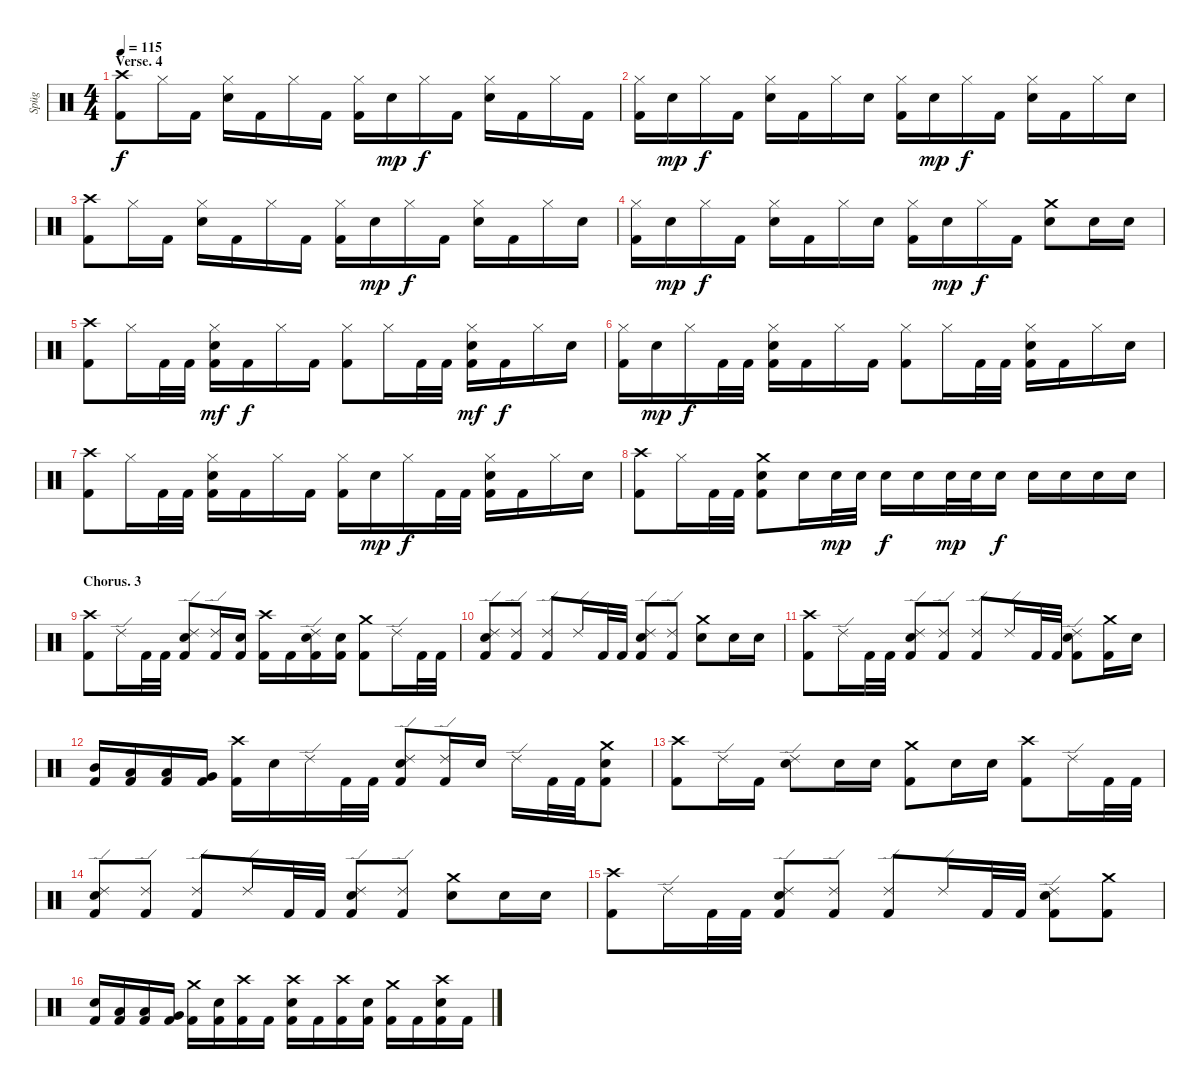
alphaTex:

\track ("Spüg" "Spüg") {instrument percussion}
\staff {score}
\articulation defaults
\ts (4 4)
\section ("" "Verse. 4")
\tempo 115
\clef neutral
\ks c
("Crash high (hit)" "Kick (hit) 2").8{dy f} "Hi-Hat (closed)".16 "Kick (hit) 2".16 ("Hi-Hat (closed)" "Electric Snare (hit)").16 "Kick (hit) 2".16 "Hi-Hat (closed)".16 "Kick (hit) 2".16 ("Hi-Hat (closed)" "Kick (hit) 2").16 "Electric Snare (hit)".16{dy mp} "Hi-Hat (closed)".16{dy f} "Kick (hit) 2".16 ("Hi-Hat (closed)" "Electric Snare (hit)").16 "Kick (hit) 2".16 "Hi-Hat (closed)".16 "Kick (hit) 2".16 |
("Hi-Hat (closed)" "Kick (hit) 2").16 "Electric Snare (hit)".16{dy mp} "Hi-Hat (closed)".16{dy f} "Kick (hit) 2".16 ("Hi-Hat (closed)" "Electric Snare (hit)").16 "Kick (hit) 2".16 "Hi-Hat (closed)".16 "Electric Snare (hit)".16 ("Hi-Hat (closed)" "Kick (hit) 2").16 "Electric Snare (hit)".16{dy mp} "Hi-Hat (closed)".16{dy f} "Kick (hit) 2".16 ("Hi-Hat (closed)" "Electric Snare (hit)").16 "Kick (hit) 2".16 "Hi-Hat (closed)".16 "Electric Snare (hit)".16 |
("Crash high (hit)" "Kick (hit) 2").8 "Hi-Hat (closed)".16 "Kick (hit) 2".16 ("Hi-Hat (closed)" "Electric Snare (hit)").16 "Kick (hit) 2".16 "Hi-Hat (closed)".16 "Kick (hit) 2".16 ("Hi-Hat (closed)" "Kick (hit) 2").16 "Electric Snare (hit)".16{dy mp} "Hi-Hat (closed)".16{dy f} "Kick (hit) 2".16 ("Hi-Hat (closed)" "Electric Snare (hit)").16 "Kick (hit) 2".16 "Hi-Hat (closed)".16 "Electric Snare (hit)".16 |
("Hi-Hat (closed)" "Kick (hit) 2").16 "Electric Snare (hit)".16{dy mp} "Hi-Hat (closed)".16{dy f} "Kick (hit) 2".16 ("Hi-Hat (closed)" "Electric Snare (hit)").16 "Kick (hit) 2".16 "Hi-Hat (closed)".16 "Electric Snare (hit)".16 ("Hi-Hat (closed)" "Kick (hit) 2").16 "Electric Snare (hit)".16{dy mp} "Hi-Hat (closed)".16{dy f} "Kick (hit) 2".16 ("Crash medium (hit)" "Electric Snare (hit)").8 "Electric Snare (hit)".16 "Electric Snare (hit)".16 |
("Crash high (hit)" "Kick (hit) 2").8 "Hi-Hat (closed)".16 "Kick (hit) 2".32 "Kick (hit) 2".32 ("Hi-Hat (closed)" "Electric Snare (hit)" "Kick (hit) 2").16{dy mf} "Kick (hit) 2".16{dy f} "Hi-Hat (closed)".16 "Kick (hit) 2".16 ("Hi-Hat (closed)" "Kick (hit) 2").8 "Hi-Hat (closed)".16 "Kick (hit) 2".32 "Kick (hit) 2".32 ("Hi-Hat (closed)" "Electric Snare (hit)" "Kick (hit) 2").16{dy mf} "Kick (hit) 2".16{dy f} "Hi-Hat (closed)".16 "Electric Snare (hit)".16 |
("Hi-Hat (closed)" "Kick (hit) 2").16 "Electric Snare (hit)".16{dy mp} "Hi-Hat (closed)".16{dy f} "Kick (hit) 2".32 "Kick (hit) 2".32 ("Hi-Hat (closed)" "Electric Snare (hit)" "Kick (hit) 2").16 "Kick (hit) 2".16 "Hi-Hat (closed)".16 "Kick (hit) 2".16 ("Hi-Hat (closed)" "Kick (hit) 2").8 "Hi-Hat (closed)".16 "Kick (hit) 2".32 "Kick (hit) 2".32 ("Hi-Hat (closed)" "Electric Snare (hit)" "Kick (hit) 2").16 "Kick (hit) 2".16 "Hi-Hat (closed)".16 "Electric Snare (hit)".16 |
("Crash high (hit)" "Kick (hit) 2").8 "Hi-Hat (closed)".16 "Kick (hit) 2".32 "Kick (hit) 2".32 ("Hi-Hat (closed)" "Electric Snare (hit)" "Kick (hit) 2").16 "Kick (hit) 2".16 "Hi-Hat (closed)".16 "Kick (hit) 2".16 ("Hi-Hat (closed)" "Kick (hit) 2").16 "Electric Snare (hit)".16{dy mp} "Hi-Hat (closed)".16{dy f} "Kick (hit) 2".32 "Kick (hit) 2".32 ("Hi-Hat (closed)" "Electric Snare (hit)" "Kick (hit) 2").16 "Kick (hit) 2".16 "Hi-Hat (closed)".16 "Electric Snare (hit)".16 |
("Crash high (hit)" "Kick (hit) 2").8 "Hi-Hat (closed)".16 "Kick (hit) 2".32 "Kick (hit) 2".32 ("Crash medium (hit)" "Electric Snare (hit)" "Kick (hit) 2").8 "Electric Snare (hit)".16 "Electric Snare (hit)".32{dy mp} "Electric Snare (hit)".32 "Electric Snare (hit)".16{dy f} "Electric Snare (hit)".16 "Electric Snare (hit)".32{dy mp} "Electric Snare (hit)".32 "Electric Snare (hit)".16{dy f} "Electric Snare (hit)".16 "Electric Snare (hit)".16 "Electric Snare (hit)".16 "Electric Snare (hit)".16 |
\section ("" "Chorus. 3 ")
("Crash high (hit)" "Kick (hit) 2").8 "Ride (edge) 2".16 "Kick (hit) 2".32 "Kick (hit) 2".32 ("Ride (edge) 2" "Electric Snare (hit)" "Kick (hit) 2").8 ("Ride (edge) 2" "Kick (hit) 2").16 ("Electric Snare (hit)" "Kick (hit) 2").16 ("Crash high (hit)" "Kick (hit) 2").16 "Kick (hit) 2".16 ("Ride (edge) 2" "Electric Snare (hit)" "Kick (hit) 2").16 ("Electric Snare (hit)" "Kick (hit) 2").16 ("Crash medium (hit)" "Kick (hit) 2").8 "Ride (edge) 2".16 "Kick (hit) 2".32 "Kick (hit) 2".32 |
("Ride (edge) 2" "Electric Snare (hit)" "Kick (hit) 2").8 ("Ride (edge) 2" "Kick (hit) 2").8 ("Ride (edge) 2" "Kick (hit) 2").8 "Ride (edge) 2".16 "Kick (hit) 2".32 "Kick (hit) 2".32 ("Ride (edge) 2" "Electric Snare (hit)" "Kick (hit) 2").8 ("Ride (edge) 2" "Kick (hit) 2").8 ("Crash medium (hit)" "Electric Snare (hit)").8 "Electric Snare (hit)".16 "Electric Snare (hit)".16 |
("Crash high (hit)" "Kick (hit) 2").8 "Ride (edge) 2".16 "Kick (hit) 2".32 "Kick (hit) 2".32 ("Ride (edge) 2" "Electric Snare (hit)" "Kick (hit) 2").8 ("Ride (edge) 2" "Kick (hit) 2").8 ("Ride (edge) 2" "Kick (hit) 2").8 "Ride (edge) 2".16 "Kick (hit) 2".32 "Kick (hit) 2".32 ("Ride (edge) 2" "Electric Snare (hit)" "Kick (hit) 2").8 ("Crash medium (hit)" "Kick (hit) 2").16 "Electric Snare (hit)".16 |
("Mid Tom (hit)" "Kick (hit) 2").16 ("Low Tom (hit)" "Kick (hit) 2").16 ("Low Tom (hit)" "Kick (hit) 2").16 ("Very Low Tom (hit)" "Kick (hit) 2").16 ("Crash high (hit)" "Kick (hit) 2").16 "Electric Snare (hit)".16 "Ride (edge) 2".16 "Kick (hit) 2".32 "Kick (hit) 2".32 ("Ride (edge) 2" "Electric Snare (hit)" "Kick (hit) 2").8 ("Ride (edge) 2" "Kick (hit) 2").16 "Electric Snare (hit)".16 "Ride (edge) 2".16 "Kick (hit) 2".32 "Kick (hit) 2".32 ("Crash medium (hit)" "Electric Snare (hit)" "Kick (hit) 2").8 |
("Crash high (hit)" "Kick (hit) 2").8 "Ride (edge) 2".16 "Kick (hit) 2".16 ("Ride (edge) 2" "Electric Snare (hit)").8 "Electric Snare (hit)".16 "Electric Snare (hit)".16 ("Crash medium (hit)" "Kick (hit) 2").8 "Electric Snare (hit)".16 "Electric Snare (hit)".16 ("Crash high (hit)" "Kick (hit) 2").8 "Ride (edge) 2".16 "Kick (hit) 2".32 "Kick (hit) 2".32 |
("Ride (edge) 2" "Electric Snare (hit)" "Kick (hit) 2").8 ("Ride (edge) 2" "Kick (hit) 2").8 ("Ride (edge) 2" "Kick (hit) 2").8 "Ride (edge) 2".16 "Kick (hit) 2".32 "Kick (hit) 2".32 ("Ride (edge) 2" "Electric Snare (hit)" "Kick (hit) 2").8 ("Ride (edge) 2" "Kick (hit) 2").8 ("Crash medium (hit)" "Electric Snare (hit)").8 "Electric Snare (hit)".16 "Electric Snare (hit)".16 |
("Crash high (hit)" "Kick (hit) 2").8 "Ride (edge) 2".16 "Kick (hit) 2".32 "Kick (hit) 2".32 ("Ride (edge) 2" "Electric Snare (hit)" "Kick (hit) 2").8 ("Ride (edge) 2" "Kick (hit) 2").8 ("Ride (edge) 2" "Kick (hit) 2").8 "Ride (edge) 2".16 "Kick (hit) 2".32 "Kick (hit) 2".32 ("Ride (edge) 2" "Electric Snare (hit)" "Kick (hit) 2").8 ("Crash medium (hit)" "Kick (hit) 2").8 |
("Electric Snare (hit)" "Kick (hit) 2").16 ("Low Tom (hit)" "Kick (hit) 2").16 ("Low Tom (hit)" "Kick (hit) 2").16 ("Very Low Tom (hit)" "Kick (hit) 2").16 ("Crash medium (hit)" "Kick (hit) 2").16 ("Electric Snare (hit)" "Kick (hit) 2").16 ("Crash high (hit)" "Kick (hit) 2").16 "Kick (hit) 2".16 ("Crash high (hit)" "Electric Snare (hit)" "Kick (hit) 2").16 "Kick (hit) 2".16 ("Crash high (hit)" "Kick (hit) 2").16 ("Electric Snare (hit)" "Kick (hit) 2").16 ("Crash medium (hit)" "Kick (hit) 2").16 "Kick (hit) 2".16 ("Crash high (hit)" "Electric Snare (hit)" "Kick (hit) 2").16 "Kick (hit) 2".16
